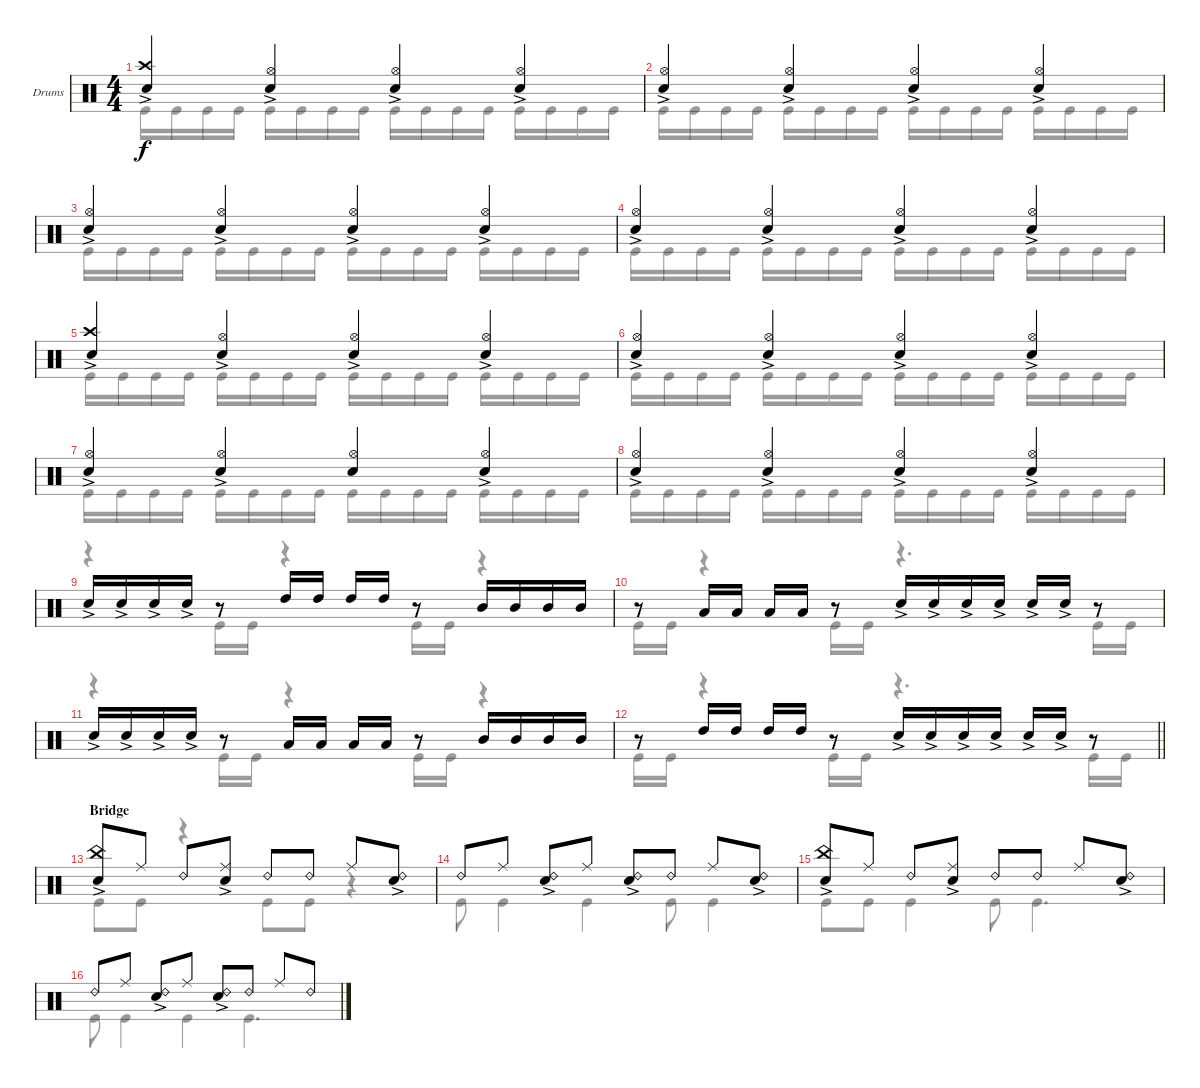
\bracketExtendMode groupsimilarinstruments
\firstSystemTrackNameOrientation horizontal
\otherSystemsTrackNameOrientation horizontal
\track ("Drumkit" "Drums") {instrument percussion}
\staff {score}
\articulation defaults
\voice
\ts (4 4)
\tempo (184 hide)
\clef neutral
\ks c
("Crash high (hit)" "Snare (hit) 2"{ac}).4{dy f} ("Hi-Hat (open)" "Snare (hit) 2"{ac}).4 ("Hi-Hat (open)" "Snare (hit) 2"{ac}).4 ("Hi-Hat (open)" "Snare (hit) 2"{ac}).4 |
("Hi-Hat (open)" "Snare (hit) 2"{ac}).4 ("Hi-Hat (open)" "Snare (hit) 2"{ac}).4 ("Hi-Hat (open)" "Snare (hit) 2"{ac}).4 ("Hi-Hat (open)" "Snare (hit) 2"{ac}).4 |
("Hi-Hat (open)" "Snare (hit) 2"{ac}).4 ("Hi-Hat (open)" "Snare (hit) 2"{ac}).4 ("Hi-Hat (open)" "Snare (hit) 2"{ac}).4 ("Hi-Hat (open)" "Snare (hit) 2"{ac}).4 |
("Hi-Hat (open)" "Snare (hit) 2"{ac}).4 ("Hi-Hat (open)" "Snare (hit) 2"{ac}).4 ("Hi-Hat (open)" "Snare (hit) 2"{ac}).4 ("Hi-Hat (open)" "Snare (hit) 2"{ac}).4 |
("Crash high (hit)" "Snare (hit) 2"{ac}).4 ("Hi-Hat (open)" "Snare (hit) 2"{ac}).4 ("Hi-Hat (open)" "Snare (hit) 2"{ac}).4 ("Hi-Hat (open)" "Snare (hit) 2"{ac}).4 |
("Hi-Hat (open)" "Snare (hit) 2"{ac}).4 ("Hi-Hat (open)" "Snare (hit) 2"{ac}).4 ("Hi-Hat (open)" "Snare (hit) 2"{ac}).4 ("Hi-Hat (open)" "Snare (hit) 2"{ac}).4 |
("Hi-Hat (open)" "Snare (hit) 2"{ac}).4 ("Hi-Hat (open)" "Snare (hit) 2"{ac}).4 ("Hi-Hat (open)" "Snare (hit) 2").4 ("Hi-Hat (open)" "Snare (hit) 2"{ac}).4 |
("Hi-Hat (open)" "Snare (hit) 2"{ac}).4 ("Hi-Hat (open)" "Snare (hit) 2"{ac}).4 ("Hi-Hat (open)" "Snare (hit) 2"{ac}).4 ("Hi-Hat (open)" "Snare (hit) 2"{ac}).4 |
"Snare (hit) 2"{ac}.16 "Snare (hit) 2"{ac}.16 "Snare (hit) 2"{ac}.16 "Snare (hit) 2"{ac}.16 r.8 "High Tom (hit)".16 "High Tom (hit)".16 "High Tom (hit)".16 "High Tom (hit)".16 r.8 "Mid Tom (hit)".16 "Mid Tom (hit)".16 "Mid Tom (hit)".16 "Mid Tom (hit)".16 |
r.8 "Low Tom (hit)".16 "Low Tom (hit)".16 "Low Tom (hit)".16 "Low Tom (hit)".16 r.8 "Snare (hit) 2"{ac}.16 "Snare (hit) 2"{ac}.16 "Snare (hit) 2"{ac}.16 "Snare (hit) 2"{ac}.16 "Snare (hit) 2"{ac}.16 "Snare (hit) 2"{ac}.16 r.8 |
"Snare (hit) 2"{ac}.16 "Snare (hit) 2"{ac}.16 "Snare (hit) 2"{ac}.16 "Snare (hit) 2"{ac}.16 r.8 "Low Tom (hit)".16 "Low Tom (hit)".16 "Low Tom (hit)".16 "Low Tom (hit)".16 r.8 "Mid Tom (hit)".16 "Mid Tom (hit)".16 "Mid Tom (hit)".16 "Mid Tom (hit)".16 |
\barLineRight lightlight
r.8 "High Tom (hit)".16 "High Tom (hit)".16 "High Tom (hit)".16 "High Tom (hit)".16 r.8 "Snare (hit) 2"{ac}.16 "Snare (hit) 2"{ac}.16 "Snare (hit) 2"{ac}.16 "Snare (hit) 2"{ac}.16 "Snare (hit) 2"{ac}.16 "Snare (hit) 2"{ac}.16 r.8 |
\section ("" "Bridge")
("China (hit)" "Snare (hit) 2"{ac}).8 "Ride (middle)".8 "Ride (bell) 2".8 ("Ride (middle)" "Snare (hit) 2"{ac}).8 "Ride (bell) 2".8 "Ride (bell) 2".8 "Ride (middle)".8 ("Ride (bell) 2" "Snare (hit) 2"{ac}).8 |
"Ride (bell) 2".8 "Ride (middle)".8 ("Ride (bell) 2" "Snare (hit) 2"{ac}).8 "Ride (middle)".8 ("Ride (bell) 2" "Snare (hit) 2"{ac}).8 "Ride (bell) 2".8 "Ride (middle)".8 ("Ride (bell) 2" "Snare (hit) 2"{ac}).8 |
("China (hit)" "Snare (hit) 2"{ac}).8 "Ride (middle)".8 "Ride (bell) 2".8 ("Ride (middle)" "Snare (hit) 2"{ac}).8 "Ride (bell) 2".8 "Ride (bell) 2".8 "Ride (middle)".8 ("Ride (bell) 2" "Snare (hit) 2"{ac}).8 |
"Ride (bell) 2".8 "Ride (middle)".8 ("Ride (bell) 2" "Snare (hit) 2"{ac}).8 "Ride (middle)".8 ("Ride (bell) 2" "Snare (hit) 2"{ac}).8 "Ride (bell) 2".8 "Ride (middle)".8 "Ride (bell) 2".8
\voice
\clef neutral
\ottava regular
\simile none
\ks c "Kick (hit)".16{dy f} "Kick (hit)".16 "Kick (hit)".16 "Kick (hit)".16 "Kick (hit)".16 "Kick (hit)".16 "Kick (hit)".16 "Kick (hit)".16 "Kick (hit)".16 "Kick (hit)".16 "Kick (hit)".16 "Kick (hit)".16 "Kick (hit)".16 "Kick (hit)".16 "Kick (hit)".16 "Kick (hit)".16
|
"Kick (hit)".16 "Kick (hit)".16 "Kick (hit)".16 "Kick (hit)".16 "Kick (hit)".16 "Kick (hit)".16 "Kick (hit)".16 "Kick (hit)".16 "Kick (hit)".16 "Kick (hit)".16 "Kick (hit)".16 "Kick (hit)".16 "Kick (hit)".16 "Kick (hit)".16 "Kick (hit)".16 "Kick (hit)".16 |
"Kick (hit)".16 "Kick (hit)".16 "Kick (hit)".16 "Kick (hit)".16 "Kick (hit)".16 "Kick (hit)".16 "Kick (hit)".16 "Kick (hit)".16 "Kick (hit)".16 "Kick (hit)".16 "Kick (hit)".16 "Kick (hit)".16 "Kick (hit)".16 "Kick (hit)".16 "Kick (hit)".16 "Kick (hit)".16 |
"Kick (hit)".16 "Kick (hit)".16 "Kick (hit)".16 "Kick (hit)".16 "Kick (hit)".16 "Kick (hit)".16 "Kick (hit)".16 "Kick (hit)".16 "Kick (hit)".16 "Kick (hit)".16 "Kick (hit)".16 "Kick (hit)".16 "Kick (hit)".16 "Kick (hit)".16 "Kick (hit)".16 "Kick (hit)".16 |
"Kick (hit)".16 "Kick (hit)".16 "Kick (hit)".16 "Kick (hit)".16 "Kick (hit)".16 "Kick (hit)".16 "Kick (hit)".16 "Kick (hit)".16 "Kick (hit)".16 "Kick (hit)".16 "Kick (hit)".16 "Kick (hit)".16 "Kick (hit)".16 "Kick (hit)".16 "Kick (hit)".16 "Kick (hit)".16 |
"Kick (hit)".16 "Kick (hit)".16 "Kick (hit)".16 "Kick (hit)".16 "Kick (hit)".16 "Kick (hit)".16 "Kick (hit)".16 "Kick (hit)".16 "Kick (hit)".16 "Kick (hit)".16 "Kick (hit)".16 "Kick (hit)".16 "Kick (hit)".16 "Kick (hit)".16 "Kick (hit)".16 "Kick (hit)".16 |
"Kick (hit)".16 "Kick (hit)".16 "Kick (hit)".16 "Kick (hit)".16 "Kick (hit)".16 "Kick (hit)".16 "Kick (hit)".16 "Kick (hit)".16 "Kick (hit)".16 "Kick (hit)".16 "Kick (hit)".16 "Kick (hit)".16 "Kick (hit)".16 "Kick (hit)".16 "Kick (hit)".16 "Kick (hit)".16 |
"Kick (hit)".16 "Kick (hit)".16 "Kick (hit)".16 "Kick (hit)".16 "Kick (hit)".16 "Kick (hit)".16 "Kick (hit)".16 "Kick (hit)".16 "Kick (hit)".16 "Kick (hit)".16 "Kick (hit)".16 "Kick (hit)".16 "Kick (hit)".16 "Kick (hit)".16 "Kick (hit)".16 "Kick (hit)".16 |
r.4 "Kick (hit)".16 "Kick (hit)".16 r.4 "Kick (hit)".16 "Kick (hit)".16 r.4 |
"Kick (hit)".16 "Kick (hit)".16 r.4 "Kick (hit)".16 "Kick (hit)".16 r.4{d} "Kick (hit)".16 "Kick (hit)".16 |
r.4 "Kick (hit)".16 "Kick (hit)".16 r.4 "Kick (hit)".16 "Kick (hit)".16 r.4 |
\barLineRight lightlight "Kick (hit)".16 "Kick (hit)".16
r.4 "Kick (hit)".16 "Kick (hit)".16 r.4{d} "Kick (hit)".16 "Kick (hit)".16 |
"Kick (hit)".8 "Kick (hit)".8 r.4 "Kick (hit)".8 "Kick (hit)".8 r.4 |
"Kick (hit)".8 "Kick (hit)".4 "Kick (hit)".4 "Kick (hit)".8 "Kick (hit)".4 |
"Kick (hit)".8 "Kick (hit)".8 "Kick (hit)".4 "Kick (hit)".8 "Kick (hit)".4{d} |
"Kick (hit)".8 "Kick (hit)".4 "Kick (hit)".4 "Kick (hit)".4{d}
